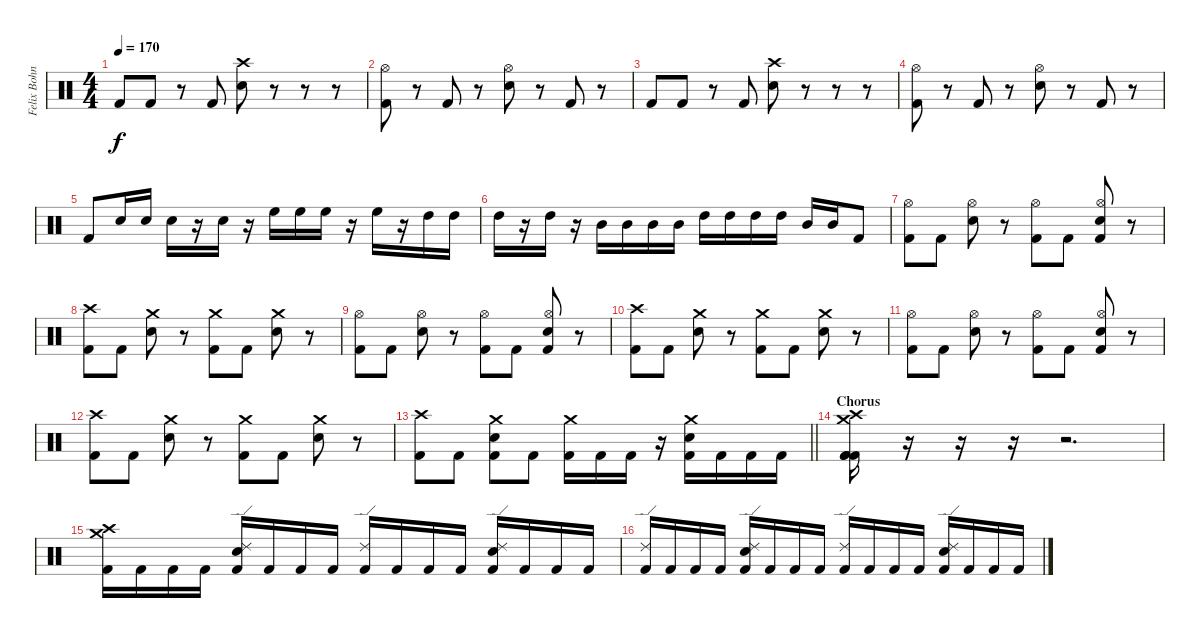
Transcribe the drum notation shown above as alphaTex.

\track ("Felix Bohnke - Drums" "Felix Bohn") {instrument percussion}
\staff {score}
\articulation defaults
\ts (4 4)
\tempo 170
\clef neutral
\ks c "Kick (hit) 2".8{dy f} "Kick (hit) 2".8
r.8 "Kick (hit) 2".8 ("Crash high (hit)" "Electric Snare (hit)").8 r.8 r.8 r.8 |
("Hi-Hat (open)" "Kick (hit) 2").8 r.8 "Kick (hit) 2".8 r.8 ("Hi-Hat (open)" "Electric Snare (hit)").8 r.8 "Kick (hit) 2".8 r.8 |
"Kick (hit) 2".8 "Kick (hit) 2".8 r.8 "Kick (hit) 2".8 ("Crash high (hit)" "Electric Snare (hit)").8 r.8 r.8 r.8 |
("Hi-Hat (open)" "Kick (hit) 2").8 r.8 "Kick (hit) 2".8 r.8 ("Hi-Hat (open)" "Electric Snare (hit)").8 r.8 "Kick (hit) 2".8 r.8 |
"Kick (hit) 2".8 "Electric Snare (hit)".16 "Electric Snare (hit)".16 "Electric Snare (hit)".16 r.16 "Electric Snare (hit)".16 r.16 "High Floor Tom (hit)".16 "High Floor Tom (hit)".16 "High Floor Tom (hit)".16 r.16 "High Floor Tom (hit)".16 r.16 "High Tom (hit)".16 "High Tom (hit)".16 |
"High Tom (hit)".16 r.16 "High Tom (hit)".16 r.16 "Mid Tom (hit)".16 "Mid Tom (hit)".16 "Mid Tom (hit)".16 "Mid Tom (hit)".16 "High Tom (hit)".16 "High Tom (hit)".16 "High Tom (hit)".16 "High Tom (hit)".16 "Mid Tom (hit)".16 "Mid Tom (hit)".16 "Kick (hit) 2".8 |
("Hi-Hat (open)" "Kick (hit) 2").8 "Kick (hit) 2".8 ("Hi-Hat (open)" "Snare (hit) 2").8 r.8 ("Hi-Hat (open)" "Kick (hit) 2").8 "Kick (hit) 2".8 ("Hi-Hat (open)" "Snare (hit) 2" "Kick (hit) 2").8 r.8 |
("Crash high (hit)" "Kick (hit) 2").8 "Kick (hit) 2".8 ("Crash medium (hit)" "Snare (hit) 2").8 r.8 ("Crash medium (hit)" "Kick (hit) 2").8 "Kick (hit) 2".8 ("Crash medium (hit)" "Snare (hit) 2").8 r.8 |
("Hi-Hat (open)" "Kick (hit) 2").8 "Kick (hit) 2".8 ("Hi-Hat (open)" "Snare (hit) 2").8 r.8 ("Hi-Hat (open)" "Kick (hit) 2").8 "Kick (hit) 2".8 ("Hi-Hat (open)" "Snare (hit) 2" "Kick (hit) 2").8 r.8 |
("Crash high (hit)" "Kick (hit) 2").8 "Kick (hit) 2".8 ("Crash medium (hit)" "Snare (hit) 2").8 r.8 ("Crash medium (hit)" "Kick (hit) 2").8 "Kick (hit) 2".8 ("Crash medium (hit)" "Snare (hit) 2").8 r.8 |
("Hi-Hat (open)" "Kick (hit) 2").8 "Kick (hit) 2".8 ("Hi-Hat (open)" "Snare (hit) 2").8 r.8 ("Hi-Hat (open)" "Kick (hit) 2").8 "Kick (hit) 2".8 ("Hi-Hat (open)" "Snare (hit) 2" "Kick (hit) 2").8 r.8 |
("Crash high (hit)" "Kick (hit) 2").8 "Kick (hit) 2".8 ("Crash medium (hit)" "Snare (hit) 2").8 r.8 ("Crash medium (hit)" "Kick (hit) 2").8 "Kick (hit) 2".8 ("Crash medium (hit)" "Snare (hit) 2").8 r.8 |
\barLineRight lightlight
("Crash high (hit)" "Kick (hit) 2").8 "Kick (hit) 2".8 ("Crash medium (hit)" "Snare (hit) 2" "Kick (hit) 2").8 "Kick (hit) 2".8 ("Crash medium (hit)" "Kick (hit) 2").16 "Kick (hit) 2".16 "Kick (hit) 2".16 r.16 ("Crash medium (hit)" "Snare (hit) 2" "Kick (hit) 2").16 "Kick (hit) 2".16 "Kick (hit) 2".16 "Kick (hit) 2".16 |
\section ("" "Chorus")
("Crash high (hit)" "Crash medium (hit)" "Kick (hit) 2" "Kick (hit) 2" "Kick (hit) 2").16 r.16 r.16 r.16 r.2{d} |
("Crash high (hit)" "Crash medium (hit)" "Kick (hit) 2").16 "Kick (hit) 2".16 "Kick (hit) 2".16 "Kick (hit) 2".16 ("Ride (edge) 2" "Snare (hit) 2" "Kick (hit) 2").16 "Kick (hit) 2".16 "Kick (hit) 2".16 "Kick (hit) 2".16 ("Ride (edge) 2" "Kick (hit) 2").16 "Kick (hit) 2".16 "Kick (hit) 2".16 "Kick (hit) 2".16 ("Ride (edge) 2" "Snare (hit) 2" "Kick (hit) 2").16 "Kick (hit) 2".16 "Kick (hit) 2".16 "Kick (hit) 2".16 |
("Ride (edge) 2" "Kick (hit) 2").16 "Kick (hit) 2".16 "Kick (hit) 2".16 "Kick (hit) 2".16 ("Ride (edge) 2" "Snare (hit) 2" "Kick (hit) 2").16 "Kick (hit) 2".16 "Kick (hit) 2".16 "Kick (hit) 2".16 ("Ride (edge) 2" "Kick (hit) 2").16 "Kick (hit) 2".16 "Kick (hit) 2".16 "Kick (hit) 2".16 ("Ride (edge) 2" "Snare (hit) 2" "Kick (hit) 2").16 "Kick (hit) 2".16 "Kick (hit) 2".16 "Kick (hit) 2".16
